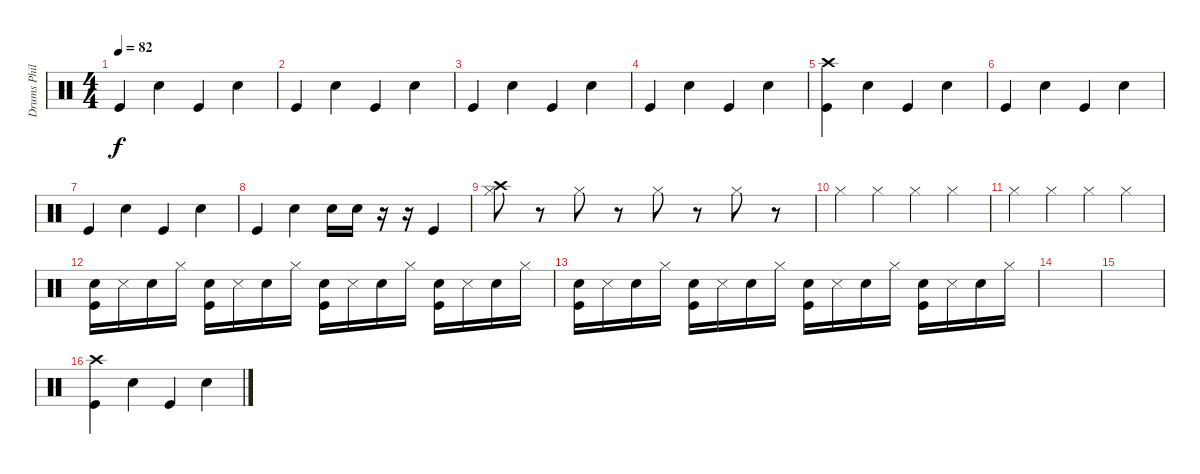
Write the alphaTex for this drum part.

\track ("Drums Phill" "Drums Phil") {instrument percussion}
\staff {score}
\articulation defaults
\ts (4 4)
\tempo 82
\clef neutral
\ks c "Kick (hit)".4{dy f} "Snare (hit) 2".4 "Kick (hit)".4 "Snare (hit) 2".4
|
"Kick (hit)".4 "Snare (hit) 2".4 "Kick (hit)".4 "Snare (hit) 2".4 |
"Kick (hit)".4 "Snare (hit) 2".4 "Kick (hit)".4 "Snare (hit) 2".4 |
"Kick (hit)".4 "Snare (hit) 2".4 "Kick (hit)".4 "Snare (hit) 2".4 |
("Crash high (hit)" "Kick (hit)").4 "Snare (hit) 2".4 "Kick (hit)".4 "Snare (hit) 2".4 |
"Kick (hit)".4 "Snare (hit) 2".4 "Kick (hit)".4 "Snare (hit) 2".4 |
"Kick (hit)".4 "Snare (hit) 2".4 "Kick (hit)".4 "Snare (hit) 2".4 |
"Kick (hit)".4 "Snare (hit) 2".4 "Snare (hit) 2".16 "Snare (hit) 2".16 r.16 r.16 "Kick (hit)".4 |
("Crash high (hit)" "Hi-Hat (closed)").8 r.8 "Hi-Hat (closed)".8 r.8 "Hi-Hat (closed)".8 r.8 "Hi-Hat (closed)".8 r.8 |
"Hi-Hat (closed)".4 "Hi-Hat (closed)".4 "Hi-Hat (closed)".4 "Hi-Hat (closed)".4 |
"Hi-Hat (closed)".4 "Hi-Hat (closed)".4 "Hi-Hat (closed)".4 "Hi-Hat (closed)".4 |
("Snare (hit) 2" "Kick (hit)").16 "Snare (side stick) 3".16 "Snare (hit) 2".16 "Hi-Hat (closed)".16 ("Snare (hit) 2" "Kick (hit)").16 "Snare (side stick) 3".16 "Snare (hit) 2".16 "Hi-Hat (closed)".16 ("Snare (hit) 2" "Kick (hit)").16 "Snare (side stick) 3".16 "Snare (hit) 2".16 "Hi-Hat (closed)".16 ("Snare (hit) 2" "Kick (hit)").16 "Snare (side stick) 3".16 "Snare (hit) 2".16 "Hi-Hat (closed)".16 |
("Snare (hit) 2" "Kick (hit)").16 "Snare (side stick) 3".16 "Snare (hit) 2".16 "Hi-Hat (closed)".16 ("Snare (hit) 2" "Kick (hit)").16 "Snare (side stick) 3".16 "Snare (hit) 2".16 "Hi-Hat (closed)".16 ("Snare (hit) 2" "Kick (hit)").16 "Snare (side stick) 3".16 "Snare (hit) 2".16 "Hi-Hat (closed)".16 ("Snare (hit) 2" "Kick (hit)").16 "Snare (side stick) 3".16 "Snare (hit) 2".16 "Hi-Hat (closed)".16 |
|
|
("Crash high (hit)" "Kick (hit)").4 "Snare (hit) 2".4 "Kick (hit)".4 "Snare (hit) 2".4
